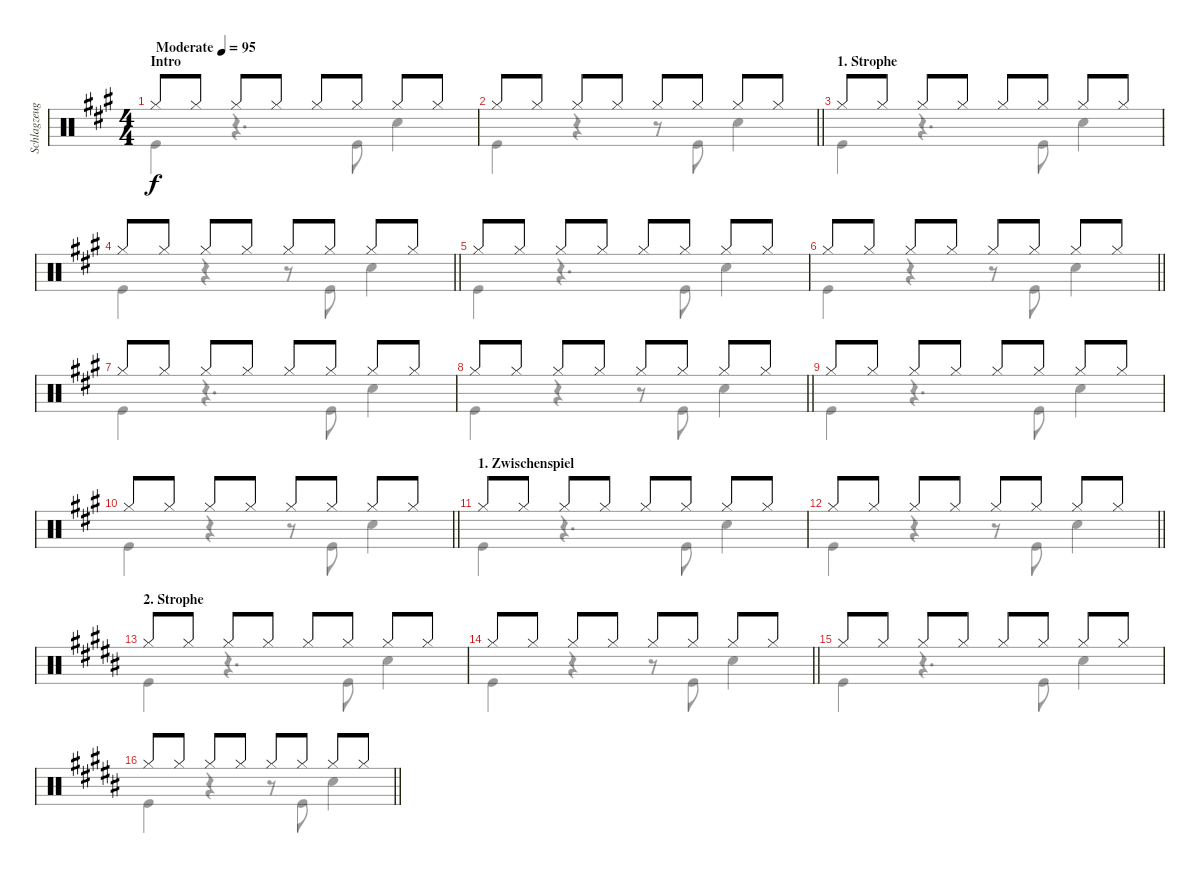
\track ("Schlagzeug" "Schlagzeug") {instrument percussion}
\staff {score}
\articulation defaults
\voice
\ts (4 4)
\section ("" "Intro")
\tempo (95 "Moderate")
\clef neutral
\ks a "Hi-Hat (closed)".8{dy f} "Hi-Hat (closed)".8 "Hi-Hat (closed)".8 "Hi-Hat (closed)".8 "Hi-Hat (closed)".8 "Hi-Hat (closed)".8 "Hi-Hat (closed)".8 "Hi-Hat (closed)".8
|
\barLineRight lightlight "Hi-Hat (closed)".8 "Hi-Hat (closed)".8 "Hi-Hat (closed)".8 "Hi-Hat (closed)".8 "Hi-Hat (closed)".8 "Hi-Hat (closed)".8 "Hi-Hat (closed)".8 "Hi-Hat (closed)".8
|
\section ("" "1. Strophe")
"Hi-Hat (closed)".8 "Hi-Hat (closed)".8 "Hi-Hat (closed)".8 "Hi-Hat (closed)".8 "Hi-Hat (closed)".8 "Hi-Hat (closed)".8 "Hi-Hat (closed)".8 "Hi-Hat (closed)".8 |
\barLineRight lightlight "Hi-Hat (closed)".8 "Hi-Hat (closed)".8 "Hi-Hat (closed)".8 "Hi-Hat (closed)".8 "Hi-Hat (closed)".8 "Hi-Hat (closed)".8 "Hi-Hat (closed)".8 "Hi-Hat (closed)".8
|
"Hi-Hat (closed)".8 "Hi-Hat (closed)".8 "Hi-Hat (closed)".8 "Hi-Hat (closed)".8 "Hi-Hat (closed)".8 "Hi-Hat (closed)".8 "Hi-Hat (closed)".8 "Hi-Hat (closed)".8 |
\barLineRight lightlight "Hi-Hat (closed)".8 "Hi-Hat (closed)".8 "Hi-Hat (closed)".8 "Hi-Hat (closed)".8 "Hi-Hat (closed)".8 "Hi-Hat (closed)".8 "Hi-Hat (closed)".8 "Hi-Hat (closed)".8
|
"Hi-Hat (closed)".8 "Hi-Hat (closed)".8 "Hi-Hat (closed)".8 "Hi-Hat (closed)".8 "Hi-Hat (closed)".8 "Hi-Hat (closed)".8 "Hi-Hat (closed)".8 "Hi-Hat (closed)".8 |
\barLineRight lightlight "Hi-Hat (closed)".8 "Hi-Hat (closed)".8 "Hi-Hat (closed)".8 "Hi-Hat (closed)".8 "Hi-Hat (closed)".8 "Hi-Hat (closed)".8 "Hi-Hat (closed)".8 "Hi-Hat (closed)".8
|
"Hi-Hat (closed)".8 "Hi-Hat (closed)".8 "Hi-Hat (closed)".8 "Hi-Hat (closed)".8 "Hi-Hat (closed)".8 "Hi-Hat (closed)".8 "Hi-Hat (closed)".8 "Hi-Hat (closed)".8 |
\barLineRight lightlight "Hi-Hat (closed)".8 "Hi-Hat (closed)".8 "Hi-Hat (closed)".8 "Hi-Hat (closed)".8 "Hi-Hat (closed)".8 "Hi-Hat (closed)".8 "Hi-Hat (closed)".8 "Hi-Hat (closed)".8
|
\section ("" "1. Zwischenspiel")
"Hi-Hat (closed)".8 "Hi-Hat (closed)".8 "Hi-Hat (closed)".8 "Hi-Hat (closed)".8 "Hi-Hat (closed)".8 "Hi-Hat (closed)".8 "Hi-Hat (closed)".8 "Hi-Hat (closed)".8 |
\barLineRight lightlight "Hi-Hat (closed)".8 "Hi-Hat (closed)".8 "Hi-Hat (closed)".8 "Hi-Hat (closed)".8 "Hi-Hat (closed)".8 "Hi-Hat (closed)".8 "Hi-Hat (closed)".8 "Hi-Hat (closed)".8
|
\section ("" "2. Strophe")
\ks b "Hi-Hat (closed)".8 "Hi-Hat (closed)".8 "Hi-Hat (closed)".8 "Hi-Hat (closed)".8 "Hi-Hat (closed)".8 "Hi-Hat (closed)".8 "Hi-Hat (closed)".8 "Hi-Hat (closed)".8
|
\barLineRight lightlight "Hi-Hat (closed)".8 "Hi-Hat (closed)".8 "Hi-Hat (closed)".8 "Hi-Hat (closed)".8 "Hi-Hat (closed)".8 "Hi-Hat (closed)".8 "Hi-Hat (closed)".8 "Hi-Hat (closed)".8
|
"Hi-Hat (closed)".8 "Hi-Hat (closed)".8 "Hi-Hat (closed)".8 "Hi-Hat (closed)".8 "Hi-Hat (closed)".8 "Hi-Hat (closed)".8 "Hi-Hat (closed)".8 "Hi-Hat (closed)".8 |
\barLineRight lightlight "Hi-Hat (closed)".8 "Hi-Hat (closed)".8 "Hi-Hat (closed)".8 "Hi-Hat (closed)".8 "Hi-Hat (closed)".8 "Hi-Hat (closed)".8 "Hi-Hat (closed)".8 "Hi-Hat (closed)".8
\voice
\clef neutral
\ottava regular
\simile none
\ks a "Kick (hit)".4{dy f}
r.4{d} "Kick (hit)".8 "Snare (hit) 2".4 |
\barLineRight lightlight "Kick (hit)".4
r.4 r.8 "Kick (hit)".8 "Snare (hit) 2".4 |
"Kick (hit)".4 r.4{d} "Kick (hit)".8 "Snare (hit) 2".4 |
\barLineRight lightlight "Kick (hit)".4
r.4 r.8 "Kick (hit)".8 "Snare (hit) 2".4 |
"Kick (hit)".4 r.4{d} "Kick (hit)".8 "Snare (hit) 2".4 |
\barLineRight lightlight "Kick (hit)".4
r.4 r.8 "Kick (hit)".8 "Snare (hit) 2".4 |
"Kick (hit)".4 r.4{d} "Kick (hit)".8 "Snare (hit) 2".4 |
\barLineRight lightlight "Kick (hit)".4
r.4 r.8 "Kick (hit)".8 "Snare (hit) 2".4 |
"Kick (hit)".4 r.4{d} "Kick (hit)".8 "Snare (hit) 2".4 |
\barLineRight lightlight "Kick (hit)".4
r.4 r.8 "Kick (hit)".8 "Snare (hit) 2".4 |
"Kick (hit)".4 r.4{d} "Kick (hit)".8 "Snare (hit) 2".4 |
\barLineRight lightlight "Kick (hit)".4
r.4 r.8 "Kick (hit)".8 "Snare (hit) 2".4 |
\ks b "Kick (hit)".4
r.4{d} "Kick (hit)".8 "Snare (hit) 2".4 |
\barLineRight lightlight "Kick (hit)".4
r.4 r.8 "Kick (hit)".8 "Snare (hit) 2".4 |
"Kick (hit)".4 r.4{d} "Kick (hit)".8 "Snare (hit) 2".4 |
\barLineRight lightlight "Kick (hit)".4
r.4 r.8 "Kick (hit)".8 "Snare (hit) 2".4
